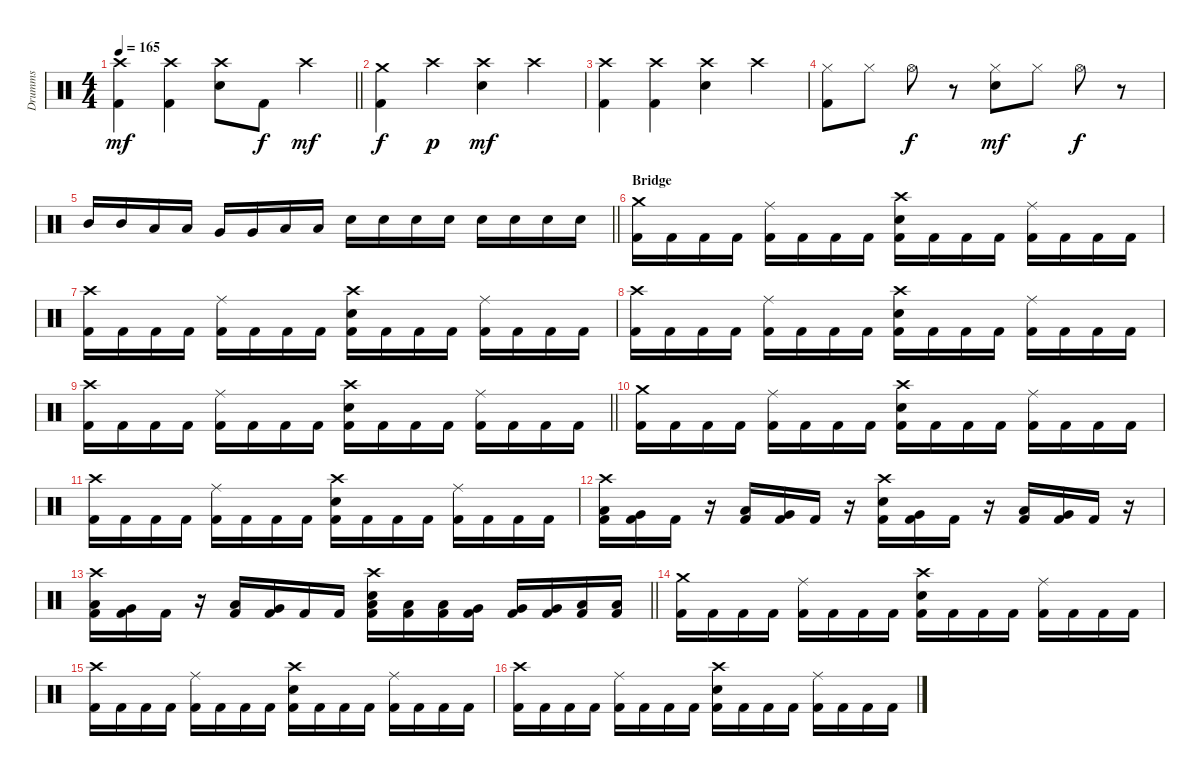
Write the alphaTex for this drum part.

\track ("Drumms" "Drumms") {instrument percussion}
\staff {score}
\articulation defaults
\ts (4 4)
\tempo 165
\clef neutral
\barLineRight lightlight
\ks c
("Crash high (hit)" "Kick (hit) 2").4{dy mf} ("Crash high (hit)" "Kick (hit) 2").4 ("Crash high (hit)" "Snare (hit) 2").8 "Kick (hit) 2".8{dy f} "Crash high (hit)".4{dy mf} |
("Crash medium (hit)" "Kick (hit) 2").4{dy f} "Crash high (hit)".4{dy p} ("Crash high (hit)" "Snare (hit) 2").4{dy mf} "Crash high (hit)".4 |
("Crash high (hit)" "Kick (hit) 2").4 ("Crash high (hit)" "Kick (hit) 2").4 ("Crash high (hit)" "Snare (hit) 2").4 "Crash high (hit)".4 |
("Hi-Hat (closed)" "Kick (hit) 2").8 "Hi-Hat (closed)".8 "Hi-Hat (open)".8{dy f} r.8 ("Hi-Hat (closed)" "Snare (hit) 2").8{dy mf} "Hi-Hat (closed)".8 "Hi-Hat (open)".8{dy f} r.8 |
\barLineRight lightlight "Mid Tom (hit)".16 "Mid Tom (hit)".16 "Low Tom (hit)".16 "Low Tom (hit)".16 "Very Low Tom (hit)".16 "Very Low Tom (hit)".16 "Low Floor Tom (hit)".16 "Low Floor Tom (hit)".16 "Electric Snare (hit)".16 "Electric Snare (hit)".16 "Electric Snare (hit)".16 "Electric Snare (hit)".16 "Electric Snare (hit)".16 "Electric Snare (hit)".16 "Electric Snare (hit)".16 "Electric Snare (hit)".16
|
\section ("" "Bridge")
("Crash medium (hit)" "Kick (hit) 2").16 "Kick (hit) 2".16 "Kick (hit) 2".16 "Kick (hit) 2".16 ("Ride (middle)" "Kick (hit) 2").16 "Kick (hit) 2".16 "Kick (hit) 2".16 "Kick (hit) 2".16 ("Crash high (hit)" "Snare (hit) 2" "Kick (hit) 2").16 "Kick (hit) 2".16 "Kick (hit) 2".16 "Kick (hit) 2".16 ("Ride (middle)" "Kick (hit) 2").16 "Kick (hit) 2".16 "Kick (hit) 2".16 "Kick (hit) 2".16 |
("Crash high (hit)" "Kick (hit) 2").16 "Kick (hit) 2".16 "Kick (hit) 2".16 "Kick (hit) 2".16 ("Ride (middle)" "Kick (hit) 2").16 "Kick (hit) 2".16 "Kick (hit) 2".16 "Kick (hit) 2".16 ("Crash high (hit)" "Snare (hit) 2" "Kick (hit) 2").16 "Kick (hit) 2".16 "Kick (hit) 2".16 "Kick (hit) 2".16 ("Ride (middle)" "Kick (hit) 2").16 "Kick (hit) 2".16 "Kick (hit) 2".16 "Kick (hit) 2".16 |
("Crash high (hit)" "Kick (hit) 2").16 "Kick (hit) 2".16 "Kick (hit) 2".16 "Kick (hit) 2".16 ("Ride (middle)" "Kick (hit) 2").16 "Kick (hit) 2".16 "Kick (hit) 2".16 "Kick (hit) 2".16 ("Crash high (hit)" "Snare (hit) 2" "Kick (hit) 2").16 "Kick (hit) 2".16 "Kick (hit) 2".16 "Kick (hit) 2".16 ("Ride (middle)" "Kick (hit) 2").16 "Kick (hit) 2".16 "Kick (hit) 2".16 "Kick (hit) 2".16 |
\barLineRight lightlight
("Crash high (hit)" "Kick (hit) 2").16 "Kick (hit) 2".16 "Kick (hit) 2".16 "Kick (hit) 2".16 ("Ride (middle)" "Kick (hit) 2").16 "Kick (hit) 2".16 "Kick (hit) 2".16 "Kick (hit) 2".16 ("Crash high (hit)" "Snare (hit) 2" "Kick (hit) 2").16 "Kick (hit) 2".16 "Kick (hit) 2".16 "Kick (hit) 2".16 ("Ride (middle)" "Kick (hit) 2").16 "Kick (hit) 2".16 "Kick (hit) 2".16 "Kick (hit) 2".16 |
("Crash medium (hit)" "Kick (hit) 2").16 "Kick (hit) 2".16 "Kick (hit) 2".16 "Kick (hit) 2".16 ("Ride (middle)" "Kick (hit) 2").16 "Kick (hit) 2".16 "Kick (hit) 2".16 "Kick (hit) 2".16 ("Crash high (hit)" "Snare (hit) 2" "Kick (hit) 2").16 "Kick (hit) 2".16 "Kick (hit) 2".16 "Kick (hit) 2".16 ("Ride (middle)" "Kick (hit) 2").16 "Kick (hit) 2".16 "Kick (hit) 2".16 "Kick (hit) 2".16 |
("Crash high (hit)" "Kick (hit) 2").16 "Kick (hit) 2".16 "Kick (hit) 2".16 "Kick (hit) 2".16 ("Ride (middle)" "Kick (hit) 2").16 "Kick (hit) 2".16 "Kick (hit) 2".16 "Kick (hit) 2".16 ("Crash high (hit)" "Snare (hit) 2" "Kick (hit) 2").16 "Kick (hit) 2".16 "Kick (hit) 2".16 "Kick (hit) 2".16 ("Ride (middle)" "Kick (hit) 2").16 "Kick (hit) 2".16 "Kick (hit) 2".16 "Kick (hit) 2".16 |
("Crash high (hit)" "Low Tom (hit)" "Kick (hit) 2").16 ("Very Low Tom (hit)" "Kick (hit) 2").16 "Kick (hit) 2".16 r.16 ("Low Tom (hit)" "Kick (hit) 2").16 ("Very Low Tom (hit)" "Kick (hit) 2").16 "Kick (hit) 2".16 r.16 ("Crash high (hit)" "Snare (hit) 2" "Kick (hit) 2").16 ("Very Low Tom (hit)" "Kick (hit) 2").16 "Kick (hit) 2".16 r.16 ("Low Tom (hit)" "Kick (hit) 2").16 ("Very Low Tom (hit)" "Kick (hit) 2").16 "Kick (hit) 2".16 r.16 |
\barLineRight lightlight
("Crash high (hit)" "Low Tom (hit)" "Kick (hit) 2").16 ("Very Low Tom (hit)" "Kick (hit) 2").16 "Kick (hit) 2".16 r.16 ("Low Tom (hit)" "Kick (hit) 2").16 ("Very Low Tom (hit)" "Kick (hit) 2").16 "Kick (hit) 2".16 "Kick (hit) 2".16 ("Crash high (hit)" "Low Tom (hit)" "Snare (hit) 2" "Kick (hit) 2").16 ("Low Tom (hit)" "Kick (hit) 2").16 ("Low Tom (hit)" "Kick (hit) 2").16 ("Very Low Tom (hit)" "Kick (hit) 2").16 ("Very Low Tom (hit)" "Kick (hit) 2").16 ("Very Low Tom (hit)" "Kick (hit) 2").16 ("Low Floor Tom (hit)" "Kick (hit) 2").16 ("Low Floor Tom (hit)" "Kick (hit) 2").16 |
("Crash medium (hit)" "Kick (hit) 2").16 "Kick (hit) 2".16 "Kick (hit) 2".16 "Kick (hit) 2".16 ("Ride (middle)" "Kick (hit) 2").16 "Kick (hit) 2".16 "Kick (hit) 2".16 "Kick (hit) 2".16 ("Crash high (hit)" "Snare (hit) 2" "Kick (hit) 2").16 "Kick (hit) 2".16 "Kick (hit) 2".16 "Kick (hit) 2".16 ("Ride (middle)" "Kick (hit) 2").16 "Kick (hit) 2".16 "Kick (hit) 2".16 "Kick (hit) 2".16 |
("Crash high (hit)" "Kick (hit) 2").16 "Kick (hit) 2".16 "Kick (hit) 2".16 "Kick (hit) 2".16 ("Ride (middle)" "Kick (hit) 2").16 "Kick (hit) 2".16 "Kick (hit) 2".16 "Kick (hit) 2".16 ("Crash high (hit)" "Snare (hit) 2" "Kick (hit) 2").16 "Kick (hit) 2".16 "Kick (hit) 2".16 "Kick (hit) 2".16 ("Ride (middle)" "Kick (hit) 2").16 "Kick (hit) 2".16 "Kick (hit) 2".16 "Kick (hit) 2".16 |
("Crash high (hit)" "Kick (hit) 2").16 "Kick (hit) 2".16 "Kick (hit) 2".16 "Kick (hit) 2".16 ("Ride (middle)" "Kick (hit) 2").16 "Kick (hit) 2".16 "Kick (hit) 2".16 "Kick (hit) 2".16 ("Crash high (hit)" "Snare (hit) 2" "Kick (hit) 2").16 "Kick (hit) 2".16 "Kick (hit) 2".16 "Kick (hit) 2".16 ("Ride (middle)" "Kick (hit) 2").16 "Kick (hit) 2".16 "Kick (hit) 2".16 "Kick (hit) 2".16
